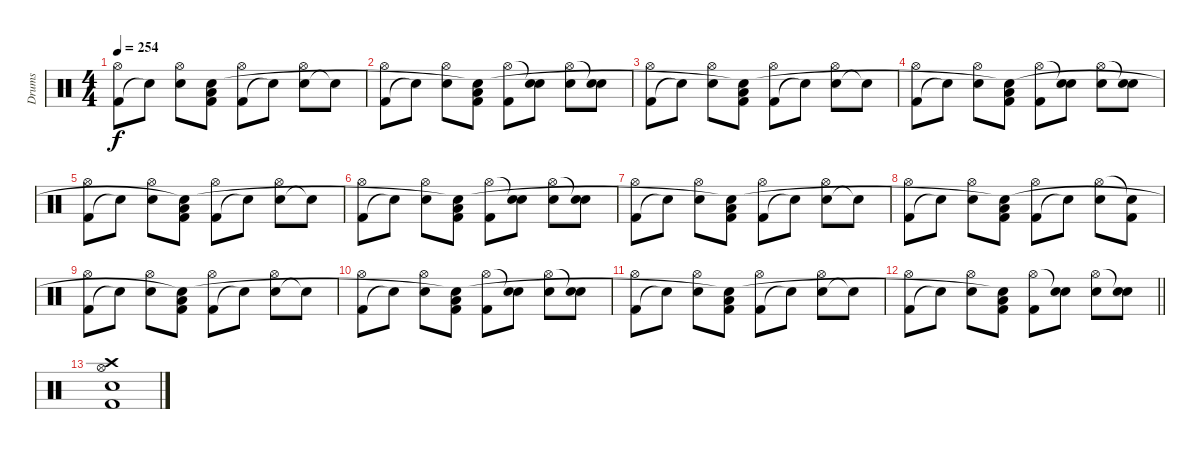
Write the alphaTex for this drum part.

\track ("Drums" "Drums") {instrument percussion}
\staff {score}
\articulation defaults
\ts (4 4)
\tempo 254
\clef neutral
\ks c
("Kick (hit) 2" "Hi-Hat (open)").8{dy f} "Snare (hit)"{t}.8 ("Electric Snare (hit)" "Hi-Hat (open)").8 ("Low Floor Tom (hit)" "Kick (hit) 2" "Snare (hit)"{t}).8 ("Kick (hit) 2" "Hi-Hat (open)").8 "Snare (hit)"{t}.8 ("Electric Snare (hit)" "Hi-Hat (open)").8 "Snare (hit)"{t}.8 |
("Kick (hit) 2" "Hi-Hat (open)").8 "Snare (hit)"{t}.8 ("Electric Snare (hit)" "Hi-Hat (open)").8 ("Low Floor Tom (hit)" "Kick (hit) 2" "Snare (hit)"{t}).8 ("Kick (hit) 2" "Hi-Hat (open)").8 ("Electric Snare (hit)" "Snare (hit)"{t}).8 ("Electric Snare (hit)" "Hi-Hat (open)").8 ("Electric Snare (hit)" "Snare (hit)"{t}).8 |
("Kick (hit) 2" "Hi-Hat (open)").8 "Snare (hit)"{t}.8 ("Electric Snare (hit)" "Hi-Hat (open)").8 ("Low Floor Tom (hit)" "Kick (hit) 2" "Snare (hit)"{t}).8 ("Kick (hit) 2" "Hi-Hat (open)").8 "Snare (hit)"{t}.8 ("Electric Snare (hit)" "Hi-Hat (open)").8 "Snare (hit)"{t}.8 |
("Kick (hit) 2" "Hi-Hat (open)").8 "Snare (hit)"{t}.8 ("Electric Snare (hit)" "Hi-Hat (open)").8 ("Low Floor Tom (hit)" "Kick (hit) 2" "Snare (hit)"{t}).8 ("Kick (hit) 2" "Hi-Hat (open)").8 ("Electric Snare (hit)" "Snare (hit)"{t}).8 ("Electric Snare (hit)" "Hi-Hat (open)").8 ("Electric Snare (hit)" "Snare (hit)"{t}).8 |
("Kick (hit) 2" "Hi-Hat (open)").8 "Snare (hit)"{t}.8 ("Electric Snare (hit)" "Hi-Hat (open)").8 ("Low Floor Tom (hit)" "Kick (hit) 2" "Snare (hit)"{t}).8 ("Kick (hit) 2" "Hi-Hat (open)").8 "Snare (hit)"{t}.8 ("Electric Snare (hit)" "Hi-Hat (open)").8 "Snare (hit)"{t}.8 |
("Kick (hit) 2" "Hi-Hat (open)").8 "Snare (hit)"{t}.8 ("Electric Snare (hit)" "Hi-Hat (open)").8 ("Low Floor Tom (hit)" "Kick (hit) 2" "Snare (hit)"{t}).8 ("Kick (hit) 2" "Hi-Hat (open)").8 ("Electric Snare (hit)" "Snare (hit)"{t}).8 ("Electric Snare (hit)" "Hi-Hat (open)").8 ("Electric Snare (hit)" "Snare (hit)"{t}).8 |
("Kick (hit) 2" "Hi-Hat (open)").8 "Snare (hit)"{t}.8 ("Electric Snare (hit)" "Hi-Hat (open)").8 ("Low Floor Tom (hit)" "Kick (hit) 2" "Snare (hit)"{t}).8 ("Kick (hit) 2" "Hi-Hat (open)").8 "Snare (hit)"{t}.8 ("Electric Snare (hit)" "Hi-Hat (open)").8 "Snare (hit)"{t}.8 |
("Kick (hit) 2" "Hi-Hat (open)").8 "Snare (hit)"{t}.8 ("Electric Snare (hit)" "Hi-Hat (open)").8 ("Low Floor Tom (hit)" "Kick (hit) 2" "Snare (hit)"{t}).8 ("Kick (hit) 2" "Hi-Hat (open)").8 "Snare (hit)"{t}.8 ("Electric Snare (hit)" "Hi-Hat (open)").8 ("Kick (hit) 2" "Snare (hit)"{t}).8 |
("Kick (hit) 2" "Hi-Hat (open)").8 "Snare (hit)"{t}.8 ("Electric Snare (hit)" "Hi-Hat (open)").8 ("Low Floor Tom (hit)" "Kick (hit) 2" "Snare (hit)"{t}).8 ("Kick (hit) 2" "Hi-Hat (open)").8 "Snare (hit)"{t}.8 ("Electric Snare (hit)" "Hi-Hat (open)").8 "Snare (hit)"{t}.8 |
("Kick (hit) 2" "Hi-Hat (open)").8 "Snare (hit)"{t}.8 ("Electric Snare (hit)" "Hi-Hat (open)").8 ("Low Floor Tom (hit)" "Kick (hit) 2" "Snare (hit)"{t}).8 ("Kick (hit) 2" "Hi-Hat (open)").8 ("Electric Snare (hit)" "Snare (hit)"{t}).8 ("Electric Snare (hit)" "Hi-Hat (open)").8 ("Electric Snare (hit)" "Snare (hit)"{t}).8 |
("Kick (hit) 2" "Hi-Hat (open)").8 "Snare (hit)"{t}.8 ("Electric Snare (hit)" "Hi-Hat (open)").8 ("Low Floor Tom (hit)" "Kick (hit) 2" "Snare (hit)"{t}).8 ("Kick (hit) 2" "Hi-Hat (open)").8 "Snare (hit)"{t}.8 ("Electric Snare (hit)" "Hi-Hat (open)").8 "Snare (hit)"{t}.8 |
\barLineRight lightlight
("Kick (hit) 2" "Hi-Hat (open)").8 "Snare (hit)"{t}.8 ("Electric Snare (hit)" "Hi-Hat (open)").8 ("Low Floor Tom (hit)" "Kick (hit) 2" "Snare (hit)"{t}).8 ("Kick (hit) 2" "Hi-Hat (open)").8 ("Electric Snare (hit)" "Snare (hit)"{t}).8 ("Electric Snare (hit)" "Hi-Hat (open)").8 ("Electric Snare (hit)" "Snare (hit)"{t}).8 |
("Electric Snare (hit)" "Hi-Hat (open)" "Kick (hit) 2" "Crash high (hit)").1
